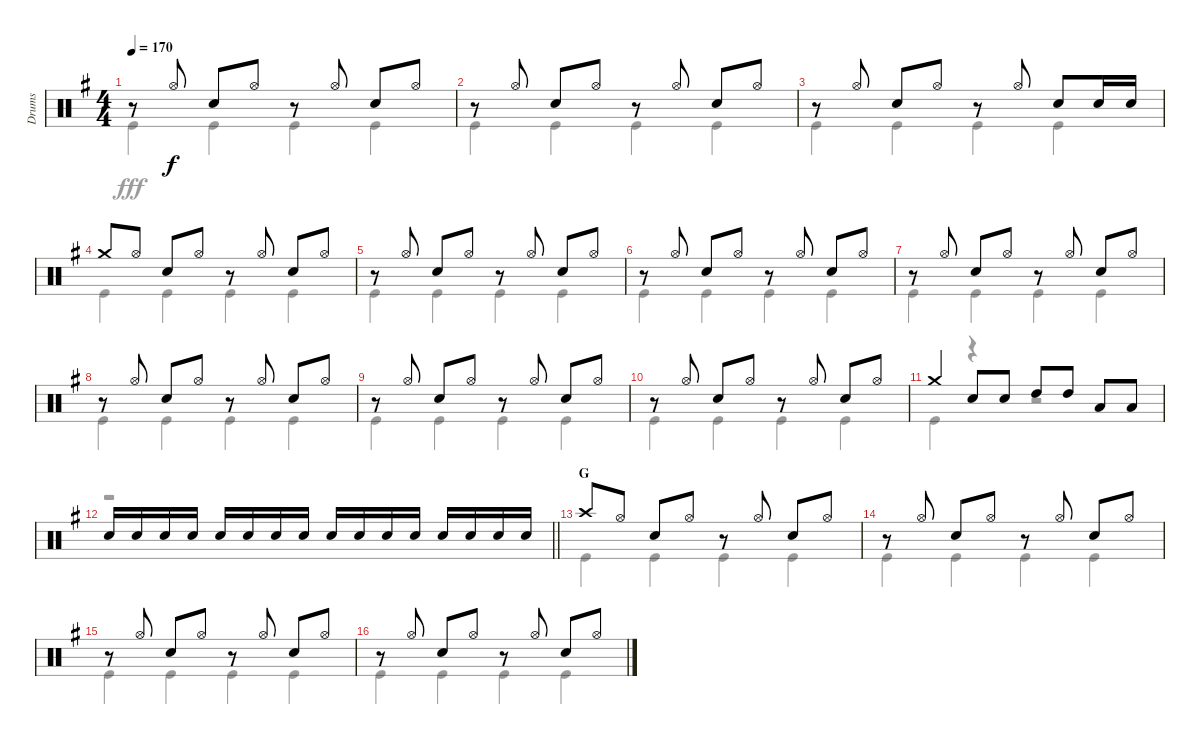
\track ("Drums" "Drums") {instrument percussion}
\staff {score}
\articulation defaults
\voice
\ts (4 4)
\tempo 170
\clef neutral
\ks g
r.8{dy f} "Hi-Hat (open)".8 "Snare (hit) 2".8 "Hi-Hat (open)".8 r.8 "Hi-Hat (open)".8 "Snare (hit) 2".8 "Hi-Hat (open)".8 |
r.8 "Hi-Hat (open)".8 "Snare (hit) 2".8 "Hi-Hat (open)".8 r.8 "Hi-Hat (open)".8 "Snare (hit) 2".8 "Hi-Hat (open)".8 |
r.8 "Hi-Hat (open)".8 "Snare (hit) 2".8 "Hi-Hat (open)".8 r.8 "Hi-Hat (open)".8 "Snare (hit) 2".8 "Snare (hit) 2".16 "Snare (hit) 2".16 |
"Crash medium (hit)".8 "Hi-Hat (open)".8 "Snare (hit) 2".8 "Hi-Hat (open)".8 r.8 "Hi-Hat (open)".8 "Snare (hit) 2".8 "Hi-Hat (open)".8 |
r.8 "Hi-Hat (open)".8 "Snare (hit) 2".8 "Hi-Hat (open)".8 r.8 "Hi-Hat (open)".8 "Snare (hit) 2".8 "Hi-Hat (open)".8 |
r.8 "Hi-Hat (open)".8 "Snare (hit) 2".8 "Hi-Hat (open)".8 r.8 "Hi-Hat (open)".8 "Snare (hit) 2".8 "Hi-Hat (open)".8 |
r.8 "Hi-Hat (open)".8 "Snare (hit) 2".8 "Hi-Hat (open)".8 r.8 "Hi-Hat (open)".8 "Snare (hit) 2".8 "Hi-Hat (open)".8 |
r.8 "Hi-Hat (open)".8 "Snare (hit) 2".8 "Hi-Hat (open)".8 r.8 "Hi-Hat (open)".8 "Snare (hit) 2".8 "Hi-Hat (open)".8 |
r.8 "Hi-Hat (open)".8 "Snare (hit) 2".8 "Hi-Hat (open)".8 r.8 "Hi-Hat (open)".8 "Snare (hit) 2".8 "Hi-Hat (open)".8 |
r.8 "Hi-Hat (open)".8 "Snare (hit) 2".8 "Hi-Hat (open)".8 r.8 "Hi-Hat (open)".8 "Snare (hit) 2".8 "Hi-Hat (open)".8 |
"Crash medium (hit)".4 "Snare (hit) 2".8 "Snare (hit) 2".8 "High Tom (hit)".8 "High Tom (hit)".8 "Low Tom (hit)".8 "Low Tom (hit)".8 |
\barLineRight lightlight "Snare (hit) 2".16 "Snare (hit) 2".16 "Snare (hit) 2".16 "Snare (hit) 2".16 "Snare (hit) 2".16 "Snare (hit) 2".16 "Snare (hit) 2".16 "Snare (hit) 2".16 "Snare (hit) 2".16 "Snare (hit) 2".16 "Snare (hit) 2".16 "Snare (hit) 2".16 "Snare (hit) 2".16 "Snare (hit) 2".16 "Snare (hit) 2".16 "Snare (hit) 2".16
|
\section ("" "G")
"Crash high (hit)".8 "Hi-Hat (open)".8 "Snare (hit) 2".8 "Hi-Hat (open)".8 r.8 "Hi-Hat (open)".8 "Snare (hit) 2".8 "Hi-Hat (open)".8 |
r.8 "Hi-Hat (open)".8 "Snare (hit) 2".8 "Hi-Hat (open)".8 r.8 "Hi-Hat (open)".8 "Snare (hit) 2".8 "Hi-Hat (open)".8 |
r.8 "Hi-Hat (open)".8 "Snare (hit) 2".8 "Hi-Hat (open)".8 r.8 "Hi-Hat (open)".8 "Snare (hit) 2".8 "Hi-Hat (open)".8 |
r.8 "Hi-Hat (open)".8 "Snare (hit) 2".8 "Hi-Hat (open)".8 r.8 "Hi-Hat (open)".8 "Snare (hit) 2".8 "Hi-Hat (open)".8
\voice
\clef neutral
\ottava regular
\simile none
\ks g "Kick (hit)".4{dy fff} "Kick (hit)".4 "Kick (hit)".4 "Kick (hit)".4
|
"Kick (hit)".4 "Kick (hit)".4 "Kick (hit)".4 "Kick (hit)".4 |
"Kick (hit)".4 "Kick (hit)".4 "Kick (hit)".4 "Kick (hit)".4 |
"Kick (hit)".4 "Kick (hit)".4 "Kick (hit)".4 "Kick (hit)".4 |
"Kick (hit)".4 "Kick (hit)".4 "Kick (hit)".4 "Kick (hit)".4 |
"Kick (hit)".4 "Kick (hit)".4 "Kick (hit)".4 "Kick (hit)".4 |
"Kick (hit)".4 "Kick (hit)".4 "Kick (hit)".4 "Kick (hit)".4 |
"Kick (hit)".4 "Kick (hit)".4 "Kick (hit)".4 "Kick (hit)".4 |
"Kick (hit)".4 "Kick (hit)".4 "Kick (hit)".4 "Kick (hit)".4 |
"Kick (hit)".4 "Kick (hit)".4 "Kick (hit)".4 "Kick (hit)".4 |
"Kick (hit)".4 r.4 r.2 |
\barLineRight lightlight
r.1 |
"Kick (hit)".4 "Kick (hit)".4 "Kick (hit)".4 "Kick (hit)".4 |
"Kick (hit)".4 "Kick (hit)".4 "Kick (hit)".4 "Kick (hit)".4 |
"Kick (hit)".4 "Kick (hit)".4 "Kick (hit)".4 "Kick (hit)".4 |
"Kick (hit)".4 "Kick (hit)".4 "Kick (hit)".4 "Kick (hit)".4
